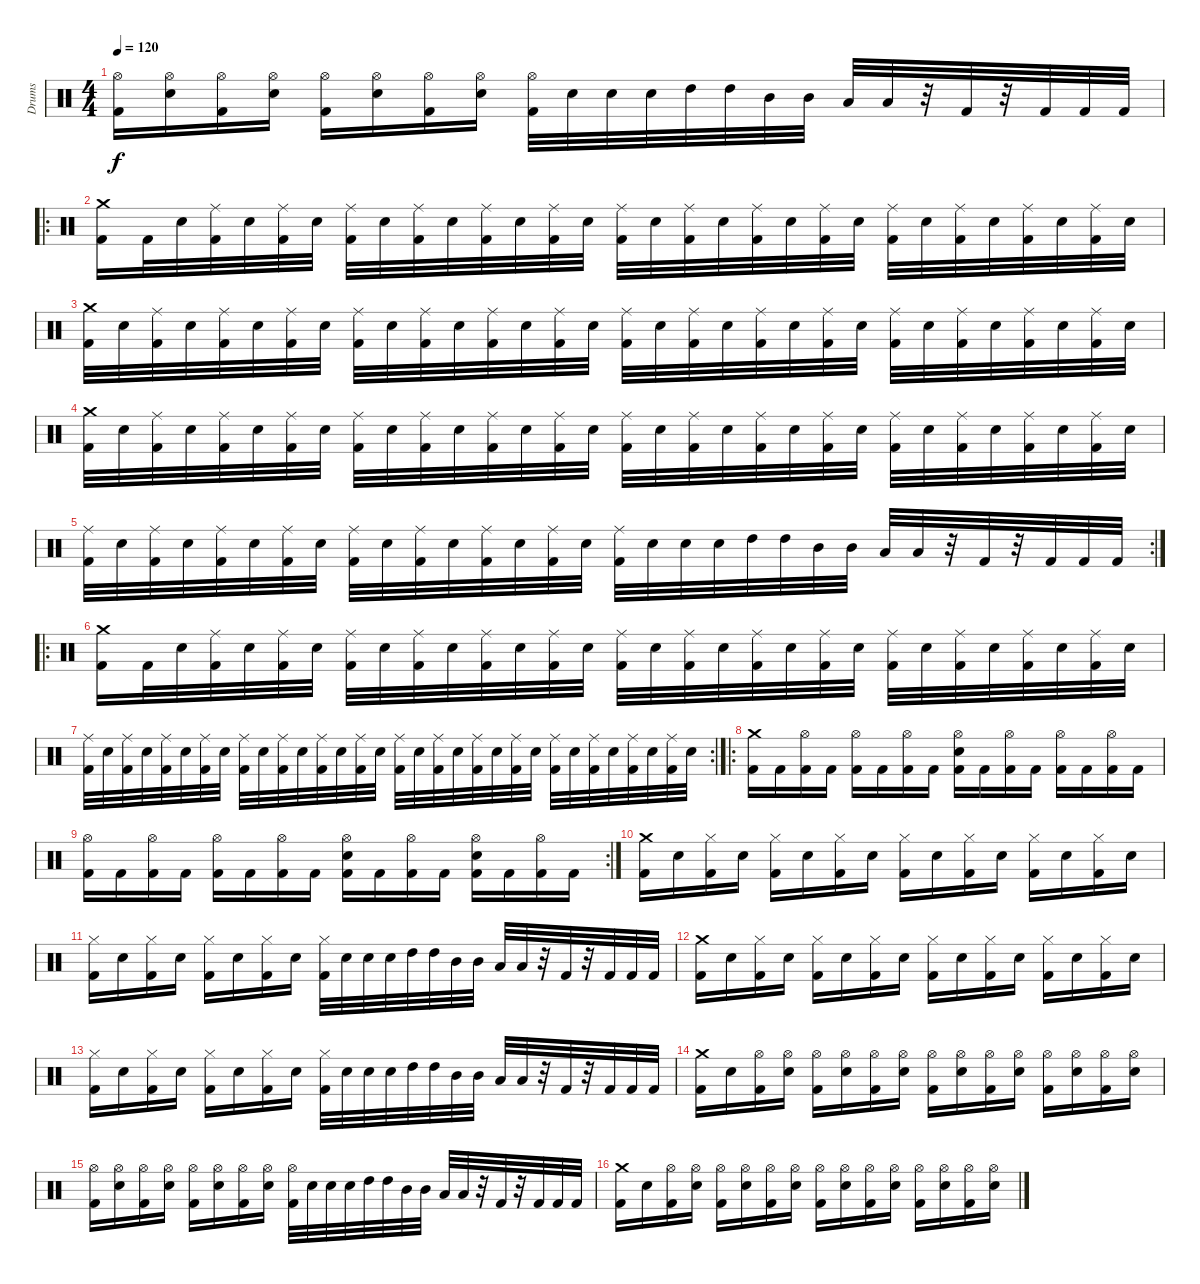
\track ("Drums" "Drums") {instrument percussion}
\staff {score}
\articulation defaults
\ts (4 4)
\tempo 120
\clef neutral
\ks c
("Hi-Hat (open)" "Kick (hit) 2").16{dy f} ("Hi-Hat (open)" "Electric Snare (hit)").16 ("Hi-Hat (open)" "Kick (hit) 2").16 ("Hi-Hat (open)" "Electric Snare (hit)").16 ("Hi-Hat (open)" "Kick (hit) 2").16 ("Hi-Hat (open)" "Electric Snare (hit)").16 ("Hi-Hat (open)" "Kick (hit) 2").16 ("Hi-Hat (open)" "Electric Snare (hit)").16 ("Hi-Hat (open)" "Kick (hit) 2").32 "Electric Snare (hit)".32 "Electric Snare (hit)".32 "Electric Snare (hit)".32 "High Tom (hit)".32 "High Tom (hit)".32 "Mid Tom (hit)".32 "Mid Tom (hit)".32 "Low Tom (hit)".32 "Low Tom (hit)".32 r.32 "Kick (hit) 2".32 r.32 "Kick (hit) 2".32 "Kick (hit) 2".32 "Kick (hit) 2".32 |
\ro
("Kick (hit) 2" "Crash medium (hit)").16 "Kick (hit) 2".32 "Electric Snare (hit)".32 ("Kick (hit) 2" "Ride (middle)").32 "Electric Snare (hit)".32 ("Kick (hit) 2" "Ride (middle)").32 "Electric Snare (hit)".32 ("Kick (hit) 2" "Ride (middle)").32 "Electric Snare (hit)".32 ("Kick (hit) 2" "Ride (middle)").32 "Electric Snare (hit)".32 ("Kick (hit) 2" "Ride (middle)").32 "Electric Snare (hit)".32 ("Kick (hit) 2" "Ride (middle)").32 "Electric Snare (hit)".32 ("Kick (hit) 2" "Ride (middle)").32 "Electric Snare (hit)".32 ("Kick (hit) 2" "Ride (middle)").32 "Electric Snare (hit)".32 ("Kick (hit) 2" "Ride (middle)").32 "Electric Snare (hit)".32 ("Kick (hit) 2" "Ride (middle)").32 "Electric Snare (hit)".32 ("Kick (hit) 2" "Ride (middle)").32 "Electric Snare (hit)".32 ("Kick (hit) 2" "Ride (middle)").32 "Electric Snare (hit)".32 ("Kick (hit) 2" "Ride (middle)").32 "Electric Snare (hit)".32 ("Kick (hit) 2" "Ride (middle)").32 "Electric Snare (hit)".32 |
("Kick (hit) 2" "Crash medium (hit)").32 "Electric Snare (hit)".32 ("Kick (hit) 2" "Ride (middle)").32 "Electric Snare (hit)".32 ("Kick (hit) 2" "Ride (middle)").32 "Electric Snare (hit)".32 ("Kick (hit) 2" "Ride (middle)").32 "Electric Snare (hit)".32 ("Kick (hit) 2" "Ride (middle)").32 "Electric Snare (hit)".32 ("Kick (hit) 2" "Ride (middle)").32 "Electric Snare (hit)".32 ("Kick (hit) 2" "Ride (middle)").32 "Electric Snare (hit)".32 ("Kick (hit) 2" "Ride (middle)").32 "Electric Snare (hit)".32 ("Kick (hit) 2" "Ride (middle)").32 "Electric Snare (hit)".32 ("Kick (hit) 2" "Ride (middle)").32 "Electric Snare (hit)".32 ("Kick (hit) 2" "Ride (middle)").32 "Electric Snare (hit)".32 ("Kick (hit) 2" "Ride (middle)").32 "Electric Snare (hit)".32 ("Kick (hit) 2" "Ride (middle)").32 "Electric Snare (hit)".32 ("Kick (hit) 2" "Ride (middle)").32 "Electric Snare (hit)".32 ("Kick (hit) 2" "Ride (middle)").32 "Electric Snare (hit)".32 ("Kick (hit) 2" "Ride (middle)").32 "Electric Snare (hit)".32 |
("Kick (hit) 2" "Crash medium (hit)").32 "Electric Snare (hit)".32 ("Kick (hit) 2" "Ride (middle)").32 "Electric Snare (hit)".32 ("Kick (hit) 2" "Ride (middle)").32 "Electric Snare (hit)".32 ("Kick (hit) 2" "Ride (middle)").32 "Electric Snare (hit)".32 ("Kick (hit) 2" "Ride (middle)").32 "Electric Snare (hit)".32 ("Kick (hit) 2" "Ride (middle)").32 "Electric Snare (hit)".32 ("Kick (hit) 2" "Ride (middle)").32 "Electric Snare (hit)".32 ("Kick (hit) 2" "Ride (middle)").32 "Electric Snare (hit)".32 ("Kick (hit) 2" "Ride (middle)").32 "Electric Snare (hit)".32 ("Kick (hit) 2" "Ride (middle)").32 "Electric Snare (hit)".32 ("Kick (hit) 2" "Ride (middle)").32 "Electric Snare (hit)".32 ("Kick (hit) 2" "Ride (middle)").32 "Electric Snare (hit)".32 ("Kick (hit) 2" "Ride (middle)").32 "Electric Snare (hit)".32 ("Kick (hit) 2" "Ride (middle)").32 "Electric Snare (hit)".32 ("Kick (hit) 2" "Ride (middle)").32 "Electric Snare (hit)".32 ("Kick (hit) 2" "Ride (middle)").32 "Electric Snare (hit)".32 |
\rc 2
("Kick (hit) 2" "Ride (middle)").32 "Electric Snare (hit)".32 ("Kick (hit) 2" "Ride (middle)").32 "Electric Snare (hit)".32 ("Kick (hit) 2" "Ride (middle)").32 "Electric Snare (hit)".32 ("Kick (hit) 2" "Ride (middle)").32 "Electric Snare (hit)".32 ("Kick (hit) 2" "Ride (middle)").32 "Electric Snare (hit)".32 ("Kick (hit) 2" "Ride (middle)").32 "Electric Snare (hit)".32 ("Kick (hit) 2" "Ride (middle)").32 "Electric Snare (hit)".32 ("Kick (hit) 2" "Ride (middle)").32 "Electric Snare (hit)".32 ("Kick (hit) 2" "Ride (middle)").32 "Electric Snare (hit)".32 "Electric Snare (hit)".32 "Electric Snare (hit)".32 "High Tom (hit)".32 "High Tom (hit)".32 "Mid Tom (hit)".32 "Mid Tom (hit)".32 "Low Tom (hit)".32 "Low Tom (hit)".32 r.32 "Kick (hit) 2".32 r.32 "Kick (hit) 2".32 "Kick (hit) 2".32 "Kick (hit) 2".32 |
\ro
("Kick (hit) 2" "Crash medium (hit)").16 "Kick (hit) 2".32 "Electric Snare (hit)".32 ("Kick (hit) 2" "Ride (middle)").32 "Electric Snare (hit)".32 ("Kick (hit) 2" "Ride (middle)").32 "Electric Snare (hit)".32 ("Kick (hit) 2" "Ride (middle)").32 "Electric Snare (hit)".32 ("Kick (hit) 2" "Ride (middle)").32 "Electric Snare (hit)".32 ("Kick (hit) 2" "Ride (middle)").32 "Electric Snare (hit)".32 ("Kick (hit) 2" "Ride (middle)").32 "Electric Snare (hit)".32 ("Kick (hit) 2" "Ride (middle)").32 "Electric Snare (hit)".32 ("Kick (hit) 2" "Ride (middle)").32 "Electric Snare (hit)".32 ("Kick (hit) 2" "Ride (middle)").32 "Electric Snare (hit)".32 ("Kick (hit) 2" "Ride (middle)").32 "Electric Snare (hit)".32 ("Kick (hit) 2" "Ride (middle)").32 "Electric Snare (hit)".32 ("Kick (hit) 2" "Ride (middle)").32 "Electric Snare (hit)".32 ("Kick (hit) 2" "Ride (middle)").32 "Electric Snare (hit)".32 ("Kick (hit) 2" "Ride (middle)").32 "Electric Snare (hit)".32 |
\rc 2
("Kick (hit) 2" "Ride (middle)").32 "Electric Snare (hit)".32 ("Kick (hit) 2" "Ride (middle)").32 "Electric Snare (hit)".32 ("Kick (hit) 2" "Ride (middle)").32 "Electric Snare (hit)".32 ("Kick (hit) 2" "Ride (middle)").32 "Electric Snare (hit)".32 ("Kick (hit) 2" "Ride (middle)").32 "Electric Snare (hit)".32 ("Kick (hit) 2" "Ride (middle)").32 "Electric Snare (hit)".32 ("Kick (hit) 2" "Ride (middle)").32 "Electric Snare (hit)".32 ("Kick (hit) 2" "Ride (middle)").32 "Electric Snare (hit)".32 ("Kick (hit) 2" "Ride (middle)").32 "Electric Snare (hit)".32 ("Kick (hit) 2" "Ride (middle)").32 "Electric Snare (hit)".32 ("Kick (hit) 2" "Ride (middle)").32 "Electric Snare (hit)".32 ("Kick (hit) 2" "Ride (middle)").32 "Electric Snare (hit)".32 ("Kick (hit) 2" "Ride (middle)").32 "Electric Snare (hit)".32 ("Kick (hit) 2" "Ride (middle)").32 "Electric Snare (hit)".32 ("Kick (hit) 2" "Ride (middle)").32 "Electric Snare (hit)".32 ("Kick (hit) 2" "Ride (middle)").32 "Electric Snare (hit)".32 |
\ro
("Crash medium (hit)" "Kick (hit) 2").16 "Kick (hit) 2".16 ("Hi-Hat (open)" "Kick (hit) 2").16 "Kick (hit) 2".16 ("Hi-Hat (open)" "Kick (hit) 2").16 "Kick (hit) 2".16 ("Hi-Hat (open)" "Kick (hit) 2").16 "Kick (hit) 2".16 ("Hi-Hat (open)" "Electric Snare (hit)" "Kick (hit) 2").16 "Kick (hit) 2".16 ("Hi-Hat (open)" "Kick (hit) 2").16 "Kick (hit) 2".16 ("Hi-Hat (open)" "Kick (hit) 2").16 "Kick (hit) 2".16 ("Hi-Hat (open)" "Kick (hit) 2").16 "Kick (hit) 2".16 |
\rc 2
("Hi-Hat (open)" "Kick (hit) 2").16 "Kick (hit) 2".16 ("Hi-Hat (open)" "Kick (hit) 2").16 "Kick (hit) 2".16 ("Hi-Hat (open)" "Kick (hit) 2").16 "Kick (hit) 2".16 ("Hi-Hat (open)" "Kick (hit) 2").16 "Kick (hit) 2".16 ("Hi-Hat (open)" "Electric Snare (hit)" "Kick (hit) 2").16 "Kick (hit) 2".16 ("Hi-Hat (open)" "Kick (hit) 2").16 "Kick (hit) 2".16 ("Hi-Hat (open)" "Electric Snare (hit)" "Kick (hit) 2").16 "Kick (hit) 2".16 ("Hi-Hat (open)" "Kick (hit) 2").16 "Kick (hit) 2".16 |
("Crash medium (hit)" "Kick (hit) 2").16 "Electric Snare (hit)".16 ("Hi-Hat (closed)" "Kick (hit) 2").16 "Electric Snare (hit)".16 ("Hi-Hat (closed)" "Kick (hit) 2").16 "Electric Snare (hit)".16 ("Hi-Hat (closed)" "Kick (hit) 2").16 "Electric Snare (hit)".16 ("Hi-Hat (closed)" "Kick (hit) 2").16 "Electric Snare (hit)".16 ("Hi-Hat (closed)" "Kick (hit) 2").16 "Electric Snare (hit)".16 ("Hi-Hat (closed)" "Kick (hit) 2").16 "Electric Snare (hit)".16 ("Hi-Hat (closed)" "Kick (hit) 2").16 "Electric Snare (hit)".16 |
("Hi-Hat (closed)" "Kick (hit) 2").16 "Electric Snare (hit)".16 ("Hi-Hat (closed)" "Kick (hit) 2").16 "Electric Snare (hit)".16 ("Hi-Hat (closed)" "Kick (hit) 2").16 "Electric Snare (hit)".16 ("Hi-Hat (closed)" "Kick (hit) 2").16 "Electric Snare (hit)".16 ("Hi-Hat (closed)" "Kick (hit) 2").32 "Electric Snare (hit)".32 "Electric Snare (hit)".32 "Electric Snare (hit)".32 "High Tom (hit)".32 "High Tom (hit)".32 "Mid Tom (hit)".32 "Mid Tom (hit)".32 "Low Tom (hit)".32 "Low Tom (hit)".32 r.32 "Kick (hit) 2".32 r.32 "Kick (hit) 2".32 "Kick (hit) 2".32 "Kick (hit) 2".32 |
("Crash medium (hit)" "Kick (hit) 2").16 "Electric Snare (hit)".16 ("Hi-Hat (closed)" "Kick (hit) 2").16 "Electric Snare (hit)".16 ("Hi-Hat (closed)" "Kick (hit) 2").16 "Electric Snare (hit)".16 ("Hi-Hat (closed)" "Kick (hit) 2").16 "Electric Snare (hit)".16 ("Hi-Hat (closed)" "Kick (hit) 2").16 "Electric Snare (hit)".16 ("Hi-Hat (closed)" "Kick (hit) 2").16 "Electric Snare (hit)".16 ("Hi-Hat (closed)" "Kick (hit) 2").16 "Electric Snare (hit)".16 ("Hi-Hat (closed)" "Kick (hit) 2").16 "Electric Snare (hit)".16 |
("Hi-Hat (closed)" "Kick (hit) 2").16 "Electric Snare (hit)".16 ("Hi-Hat (closed)" "Kick (hit) 2").16 "Electric Snare (hit)".16 ("Hi-Hat (closed)" "Kick (hit) 2").16 "Electric Snare (hit)".16 ("Hi-Hat (closed)" "Kick (hit) 2").16 "Electric Snare (hit)".16 ("Hi-Hat (closed)" "Kick (hit) 2").32 "Electric Snare (hit)".32 "Electric Snare (hit)".32 "Electric Snare (hit)".32 "High Tom (hit)".32 "High Tom (hit)".32 "Mid Tom (hit)".32 "Mid Tom (hit)".32 "Low Tom (hit)".32 "Low Tom (hit)".32 r.32 "Kick (hit) 2".32 r.32 "Kick (hit) 2".32 "Kick (hit) 2".32 "Kick (hit) 2".32 |
("Crash medium (hit)" "Kick (hit) 2").16 "Electric Snare (hit)".16 ("Hi-Hat (open)" "Kick (hit) 2").16 ("Hi-Hat (open)" "Electric Snare (hit)").16 ("Hi-Hat (open)" "Kick (hit) 2").16 ("Hi-Hat (open)" "Electric Snare (hit)").16 ("Hi-Hat (open)" "Kick (hit) 2").16 ("Hi-Hat (open)" "Electric Snare (hit)").16 ("Hi-Hat (open)" "Kick (hit) 2").16 ("Hi-Hat (open)" "Electric Snare (hit)").16 ("Hi-Hat (open)" "Kick (hit) 2").16 ("Hi-Hat (open)" "Electric Snare (hit)").16 ("Hi-Hat (open)" "Kick (hit) 2").16 ("Hi-Hat (open)" "Electric Snare (hit)").16 ("Hi-Hat (open)" "Kick (hit) 2").16 ("Hi-Hat (open)" "Electric Snare (hit)").16 |
("Hi-Hat (open)" "Kick (hit) 2").16 ("Hi-Hat (open)" "Electric Snare (hit)").16 ("Hi-Hat (open)" "Kick (hit) 2").16 ("Hi-Hat (open)" "Electric Snare (hit)").16 ("Hi-Hat (open)" "Kick (hit) 2").16 ("Hi-Hat (open)" "Electric Snare (hit)").16 ("Hi-Hat (open)" "Kick (hit) 2").16 ("Hi-Hat (open)" "Electric Snare (hit)").16 ("Hi-Hat (open)" "Kick (hit) 2").32 "Electric Snare (hit)".32 "Electric Snare (hit)".32 "Electric Snare (hit)".32 "High Tom (hit)".32 "High Tom (hit)".32 "Mid Tom (hit)".32 "Mid Tom (hit)".32 "Low Tom (hit)".32 "Low Tom (hit)".32 r.32 "Kick (hit) 2".32 r.32 "Kick (hit) 2".32 "Kick (hit) 2".32 "Kick (hit) 2".32 |
("Crash medium (hit)" "Kick (hit) 2").16 "Electric Snare (hit)".16 ("Hi-Hat (open)" "Kick (hit) 2").16 ("Hi-Hat (open)" "Electric Snare (hit)").16 ("Hi-Hat (open)" "Kick (hit) 2").16 ("Hi-Hat (open)" "Electric Snare (hit)").16 ("Hi-Hat (open)" "Kick (hit) 2").16 ("Hi-Hat (open)" "Electric Snare (hit)").16 ("Hi-Hat (open)" "Kick (hit) 2").16 ("Hi-Hat (open)" "Electric Snare (hit)").16 ("Hi-Hat (open)" "Kick (hit) 2").16 ("Hi-Hat (open)" "Electric Snare (hit)").16 ("Hi-Hat (open)" "Kick (hit) 2").16 ("Hi-Hat (open)" "Electric Snare (hit)").16 ("Hi-Hat (open)" "Kick (hit) 2").16 ("Hi-Hat (open)" "Electric Snare (hit)").16
